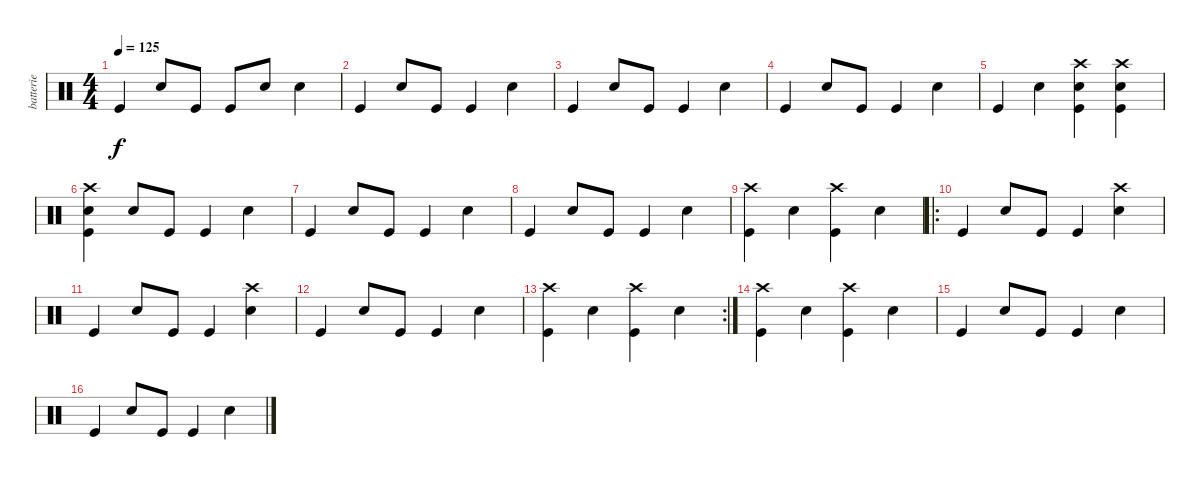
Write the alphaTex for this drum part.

\track ("batterie" "batterie") {instrument percussion}
\staff {score}
\articulation defaults
\ts (4 4)
\tempo 125
\clef neutral
\ks c "Kick (hit)".4{dy f} "Snare (hit) 2".8 "Kick (hit)".8 "Kick (hit)".8 "Snare (hit) 2".8 "Snare (hit) 2".4
|
"Kick (hit)".4 "Snare (hit) 2".8 "Kick (hit)".8 "Kick (hit)".4 "Snare (hit) 2".4 |
"Kick (hit)".4 "Snare (hit) 2".8 "Kick (hit)".8 "Kick (hit)".4 "Snare (hit) 2".4 |
"Kick (hit)".4 "Snare (hit) 2".8 "Kick (hit)".8 "Kick (hit)".4 "Snare (hit) 2".4 |
"Kick (hit)".4 "Snare (hit) 2".4 ("Crash high (hit)" "Snare (hit) 2" "Kick (hit)").4 ("Crash high (hit)" "Snare (hit) 2" "Kick (hit)").4 |
("Crash high (hit)" "Snare (hit) 2" "Kick (hit)").4 "Snare (hit) 2".8 "Kick (hit)".8 "Kick (hit)".4 "Snare (hit) 2".4 |
"Kick (hit)".4 "Snare (hit) 2".8 "Kick (hit)".8 "Kick (hit)".4 "Snare (hit) 2".4 |
"Kick (hit)".4 "Snare (hit) 2".8 "Kick (hit)".8 "Kick (hit)".4 "Snare (hit) 2".4 |
("Crash high (hit)" "Kick (hit)").4 "Snare (hit) 2".4 ("Crash high (hit)" "Kick (hit)").4 "Snare (hit) 2".4 |
\ro "Kick (hit)".4 "Snare (hit) 2".8 "Kick (hit)".8 "Kick (hit)".4
("Crash high (hit)" "Snare (hit) 2").4 |
"Kick (hit)".4 "Snare (hit) 2".8 "Kick (hit)".8 "Kick (hit)".4 ("Crash high (hit)" "Snare (hit) 2").4 |
"Kick (hit)".4 "Snare (hit) 2".8 "Kick (hit)".8 "Kick (hit)".4 "Snare (hit) 2".4 |
\rc 2
("Crash high (hit)" "Kick (hit)").4 "Snare (hit) 2".4 ("Crash high (hit)" "Kick (hit)").4 "Snare (hit) 2".4 |
("Crash high (hit)" "Kick (hit)").4 "Snare (hit) 2".4 ("Crash high (hit)" "Kick (hit)").4 "Snare (hit) 2".4 |
"Kick (hit)".4 "Snare (hit) 2".8 "Kick (hit)".8 "Kick (hit)".4 "Snare (hit) 2".4 |
"Kick (hit)".4 "Snare (hit) 2".8 "Kick (hit)".8 "Kick (hit)".4 "Snare (hit) 2".4
